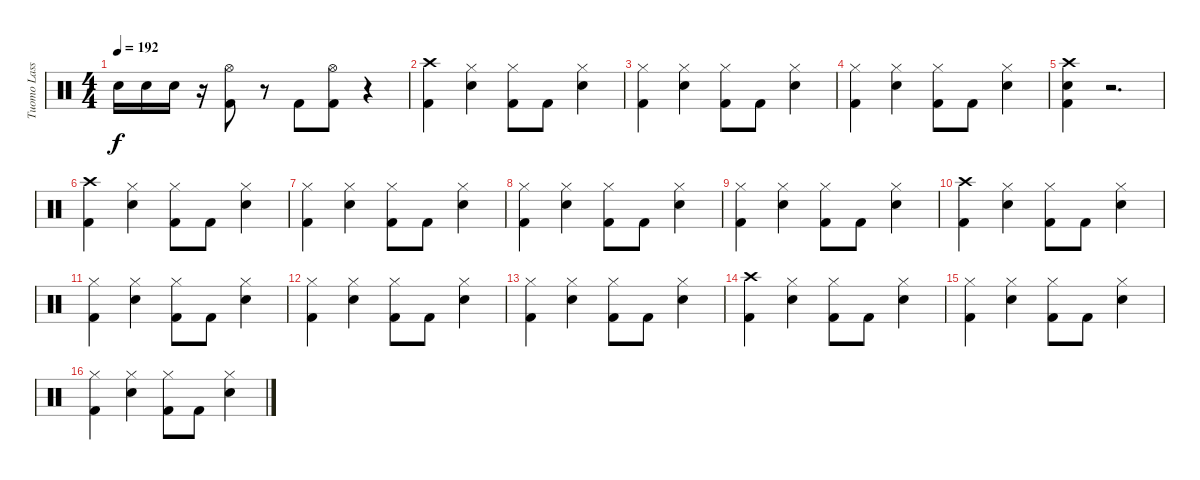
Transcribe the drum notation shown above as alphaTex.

\track ("Tuomo Lassilla" "Tuomo Lass") {instrument percussion}
\staff {score}
\articulation defaults
\ts (4 4)
\tempo 192
\clef neutral
\ks c "Snare (hit) 2".16{dy f} "Snare (hit) 2".16 "Electric Snare (hit)".16
r.16 ("Hi-Hat (open)" "Kick (hit) 2").8 r.8 "Kick (hit) 2".8 ("Hi-Hat (open)" "Kick (hit) 2").8 r.4 |
("Kick (hit) 2" "Crash high (hit)").4 ("Electric Snare (hit)" "Hi-Hat (closed)").4 ("Kick (hit) 2" "Hi-Hat (closed)").8 "Kick (hit) 2".8 ("Electric Snare (hit)" "Hi-Hat (closed)").4 |
("Kick (hit) 2" "Hi-Hat (closed)").4 ("Electric Snare (hit)" "Hi-Hat (closed)").4 ("Kick (hit) 2" "Hi-Hat (closed)").8 "Kick (hit) 2".8 ("Electric Snare (hit)" "Hi-Hat (closed)").4 |
("Kick (hit) 2" "Hi-Hat (closed)").4 ("Electric Snare (hit)" "Hi-Hat (closed)").4 ("Kick (hit) 2" "Hi-Hat (closed)").8 "Kick (hit) 2".8 ("Electric Snare (hit)" "Hi-Hat (closed)").4 |
("Crash high (hit)" "Electric Snare (hit)" "Kick (hit) 2").4 r.2{d} |
("Kick (hit) 2" "Crash high (hit)").4 ("Electric Snare (hit)" "Hi-Hat (closed)").4 ("Kick (hit) 2" "Hi-Hat (closed)").8 "Kick (hit) 2".8 ("Electric Snare (hit)" "Hi-Hat (closed)").4 |
("Kick (hit) 2" "Hi-Hat (closed)").4 ("Electric Snare (hit)" "Hi-Hat (closed)").4 ("Kick (hit) 2" "Hi-Hat (closed)").8 "Kick (hit) 2".8 ("Electric Snare (hit)" "Hi-Hat (closed)").4 |
("Kick (hit) 2" "Hi-Hat (closed)").4 ("Electric Snare (hit)" "Hi-Hat (closed)").4 ("Kick (hit) 2" "Hi-Hat (closed)").8 "Kick (hit) 2".8 ("Electric Snare (hit)" "Hi-Hat (closed)").4 |
("Kick (hit) 2" "Hi-Hat (closed)").4 ("Electric Snare (hit)" "Hi-Hat (closed)").4 ("Kick (hit) 2" "Hi-Hat (closed)").8 "Kick (hit) 2".8 ("Electric Snare (hit)" "Hi-Hat (closed)").4 |
("Kick (hit) 2" "Crash high (hit)").4 ("Electric Snare (hit)" "Hi-Hat (closed)").4 ("Kick (hit) 2" "Hi-Hat (closed)").8 "Kick (hit) 2".8 ("Electric Snare (hit)" "Hi-Hat (closed)").4 |
("Kick (hit) 2" "Hi-Hat (closed)").4 ("Electric Snare (hit)" "Hi-Hat (closed)").4 ("Kick (hit) 2" "Hi-Hat (closed)").8 "Kick (hit) 2".8 ("Electric Snare (hit)" "Hi-Hat (closed)").4 |
("Kick (hit) 2" "Hi-Hat (closed)").4 ("Electric Snare (hit)" "Hi-Hat (closed)").4 ("Kick (hit) 2" "Hi-Hat (closed)").8 "Kick (hit) 2".8 ("Electric Snare (hit)" "Hi-Hat (closed)").4 |
("Kick (hit) 2" "Hi-Hat (closed)").4 ("Electric Snare (hit)" "Hi-Hat (closed)").4 ("Kick (hit) 2" "Hi-Hat (closed)").8 "Kick (hit) 2".8 ("Electric Snare (hit)" "Hi-Hat (closed)").4 |
("Kick (hit) 2" "Crash high (hit)").4 ("Electric Snare (hit)" "Hi-Hat (closed)").4 ("Kick (hit) 2" "Hi-Hat (closed)").8 "Kick (hit) 2".8 ("Electric Snare (hit)" "Hi-Hat (closed)").4 |
("Kick (hit) 2" "Hi-Hat (closed)").4 ("Electric Snare (hit)" "Hi-Hat (closed)").4 ("Kick (hit) 2" "Hi-Hat (closed)").8 "Kick (hit) 2".8 ("Electric Snare (hit)" "Hi-Hat (closed)").4 |
("Kick (hit) 2" "Hi-Hat (closed)").4 ("Electric Snare (hit)" "Hi-Hat (closed)").4 ("Kick (hit) 2" "Hi-Hat (closed)").8 "Kick (hit) 2".8 ("Electric Snare (hit)" "Hi-Hat (closed)").4
